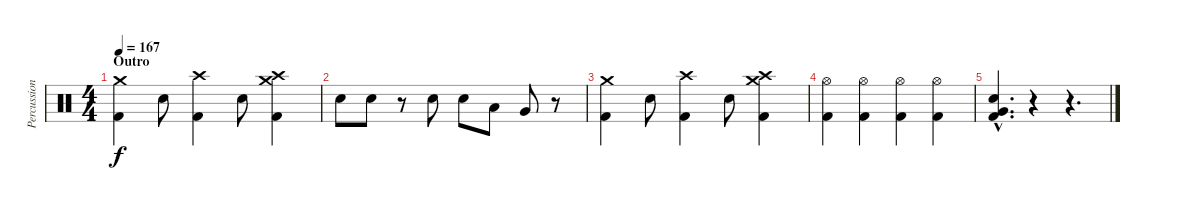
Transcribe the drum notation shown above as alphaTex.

\track ("Percussion" "Percussion") {instrument percussion}
\staff {score}
\articulation defaults
\ts (4 4)
\section ("" "Outro")
\tempo 167
\clef neutral
\ks c
("Crash medium (hit)" "Kick (hit) 2").4{dy f} "Electric Snare (hit)".8 ("Crash high (hit)" "Kick (hit) 2").4 "Electric Snare (hit)".8 ("Crash medium (hit)" "Crash high (hit)" "Kick (hit) 2").4 |
"Electric Snare (hit)".8 "Electric Snare (hit)".8 r.8 "Electric Snare (hit)".8 "Electric Snare (hit)".8 "Low Tom (hit)".8 "Very Low Tom (hit)".8 r.8 |
("Crash medium (hit)" "Kick (hit) 2").4 "Electric Snare (hit)".8 ("Crash high (hit)" "Kick (hit) 2").4 "Electric Snare (hit)".8 ("Crash medium (hit)" "Crash high (hit)" "Kick (hit) 2").4 |
("Hi-Hat (open)" "Kick (hit) 2").4 ("Hi-Hat (open)" "Kick (hit) 2").4 ("Hi-Hat (open)" "Kick (hit) 2").4 ("Hi-Hat (open)" "Kick (hit) 2").4 |
("Electric Snare (hit)"{hac} "Very Low Tom (hit)"{hac} "Kick (hit) 2"{hac}).4{d} r.4 r.4{d}
